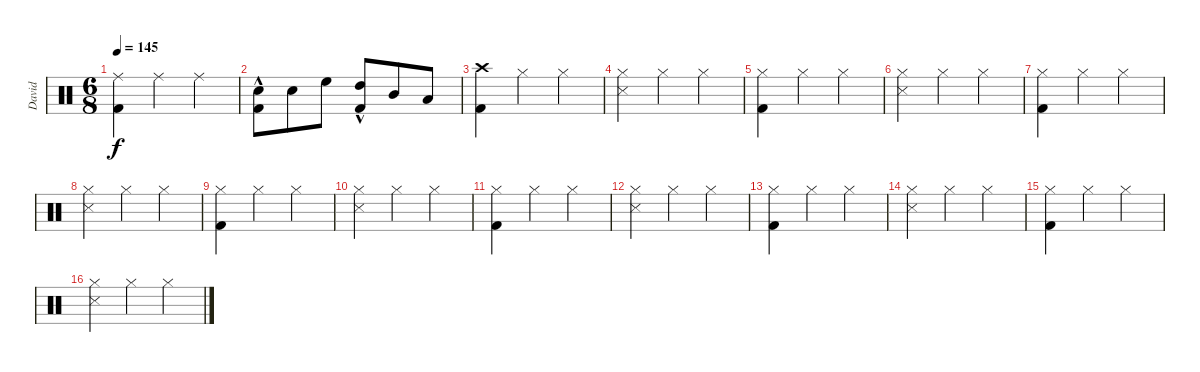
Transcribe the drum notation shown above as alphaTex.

\track ("David" "David") {instrument percussion}
\staff {score}
\articulation defaults
\ts (6 8)
\tempo 145
\clef neutral
\ks c
("Ride (middle)" "Kick (hit) 2").4{dy f} "Ride (middle)".4 "Ride (middle)".4 |
("Electric Snare (hit)" "Kick (hit) 2"{hac}).8 "Electric Snare (hit)".8 "High Floor Tom (hit)".8 ("High Tom (hit)" "Kick (hit) 2"{hac}).8 "Mid Tom (hit)".8 "Low Tom (hit)".8 |
("Crash high (hit)" "Kick (hit) 2").4 "Hi-Hat (closed)".4 "Hi-Hat (closed)".4 |
("Hi-Hat (closed)" "Snare (side stick) 3").4 "Hi-Hat (closed)".4 "Hi-Hat (closed)".4 |
("Hi-Hat (closed)" "Kick (hit) 2").4 "Hi-Hat (closed)".4 "Hi-Hat (closed)".4 |
("Hi-Hat (closed)" "Snare (side stick) 3").4 "Hi-Hat (closed)".4 "Hi-Hat (closed)".4 |
("Hi-Hat (closed)" "Kick (hit) 2").4 "Hi-Hat (closed)".4 "Hi-Hat (closed)".4 |
("Hi-Hat (closed)" "Snare (side stick) 3").4 "Hi-Hat (closed)".4 "Hi-Hat (closed)".4 |
("Hi-Hat (closed)" "Kick (hit) 2").4 "Hi-Hat (closed)".4 "Hi-Hat (closed)".4 |
("Hi-Hat (closed)" "Snare (side stick) 3").4 "Hi-Hat (closed)".4 "Hi-Hat (closed)".4 |
("Hi-Hat (closed)" "Kick (hit) 2").4 "Hi-Hat (closed)".4 "Hi-Hat (closed)".4 |
("Hi-Hat (closed)" "Snare (side stick) 3").4 "Hi-Hat (closed)".4 "Hi-Hat (closed)".4 |
("Hi-Hat (closed)" "Kick (hit) 2").4 "Hi-Hat (closed)".4 "Hi-Hat (closed)".4 |
("Hi-Hat (closed)" "Snare (side stick) 3").4 "Hi-Hat (closed)".4 "Hi-Hat (closed)".4 |
("Hi-Hat (closed)" "Kick (hit) 2").4 "Hi-Hat (closed)".4 "Hi-Hat (closed)".4 |
("Hi-Hat (closed)" "Snare (side stick) 3").4 "Hi-Hat (closed)".4 "Hi-Hat (closed)".4
